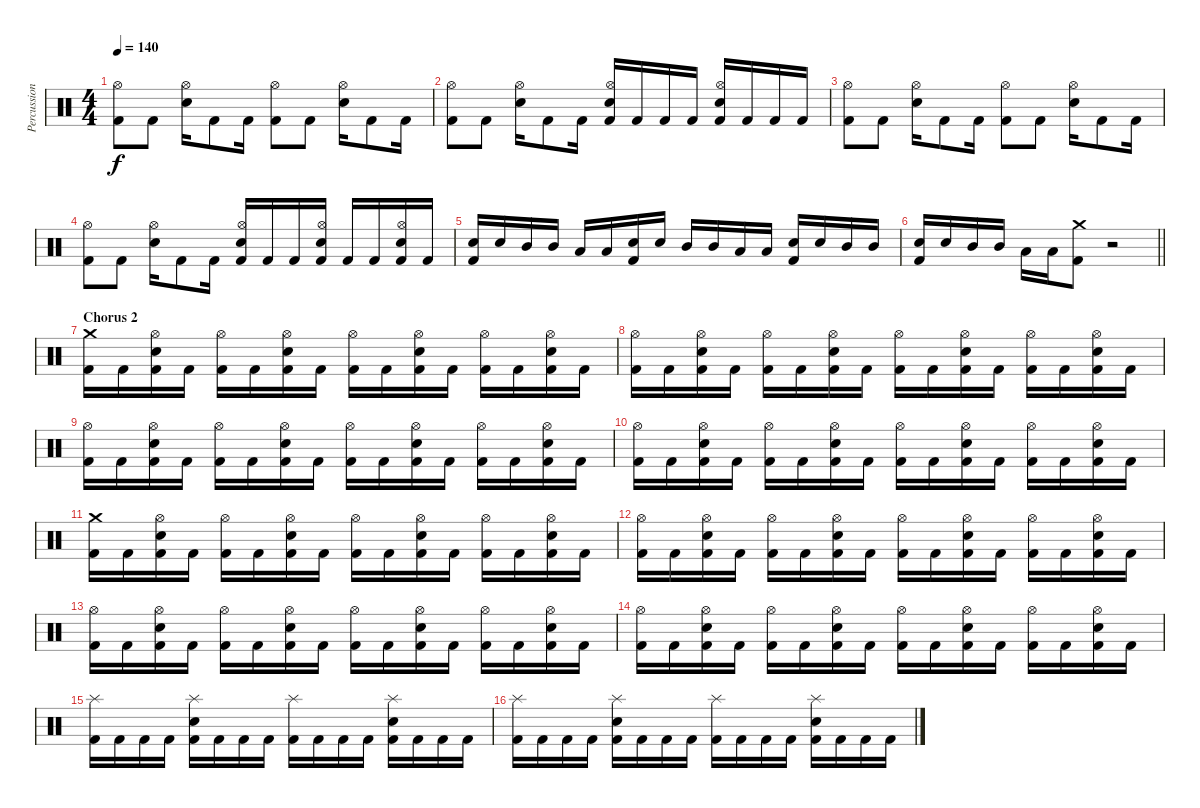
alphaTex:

\track ("Percussion" "Percussion") {instrument percussion}
\staff {score}
\articulation defaults
\ts (4 4)
\tempo 140
\clef neutral
\ks c
("Kick (hit) 2" "Hi-Hat (open)").8{dy f} "Kick (hit) 2".8 ("Electric Snare (hit)" "Hi-Hat (open)").16 "Kick (hit) 2".8 "Kick (hit) 2".16 ("Kick (hit) 2" "Hi-Hat (open)").8 "Kick (hit) 2".8 ("Electric Snare (hit)" "Hi-Hat (open)").16 "Kick (hit) 2".8 "Kick (hit) 2".16 |
("Kick (hit) 2" "Hi-Hat (open)").8 "Kick (hit) 2".8 ("Electric Snare (hit)" "Hi-Hat (open)").16 "Kick (hit) 2".8 "Kick (hit) 2".16 ("Kick (hit) 2" "Electric Snare (hit)" "Hi-Hat (open)").16 "Kick (hit) 2".16 "Kick (hit) 2".16 "Kick (hit) 2".16 ("Kick (hit) 2" "Electric Snare (hit)" "Hi-Hat (open)").16 "Kick (hit) 2".16 "Kick (hit) 2".16 "Kick (hit) 2".16 |
("Kick (hit) 2" "Hi-Hat (open)").8 "Kick (hit) 2".8 ("Electric Snare (hit)" "Hi-Hat (open)").16 "Kick (hit) 2".8 "Kick (hit) 2".16 ("Kick (hit) 2" "Hi-Hat (open)").8 "Kick (hit) 2".8 ("Electric Snare (hit)" "Hi-Hat (open)").16 "Kick (hit) 2".8 "Kick (hit) 2".16 |
("Kick (hit) 2" "Hi-Hat (open)").8 "Kick (hit) 2".8 ("Electric Snare (hit)" "Hi-Hat (open)").16 "Kick (hit) 2".8 "Kick (hit) 2".16 ("Kick (hit) 2" "Electric Snare (hit)" "Hi-Hat (open)").16 "Kick (hit) 2".16 "Kick (hit) 2".16 ("Kick (hit) 2" "Electric Snare (hit)" "Hi-Hat (open)").16 "Kick (hit) 2".16 "Kick (hit) 2".16 ("Kick (hit) 2" "Electric Snare (hit)" "Hi-Hat (open)").16 "Kick (hit) 2".16 |
("Kick (hit) 2" "Electric Snare (hit)").16 "Electric Snare (hit)".16 "Mid Tom (hit)".16 "Mid Tom (hit)".16 "Low Floor Tom (hit)".16 "Low Floor Tom (hit)".16 ("Kick (hit) 2" "Electric Snare (hit)").16 "Electric Snare (hit)".16 "Mid Tom (hit)".16 "Mid Tom (hit)".16 "Low Floor Tom (hit)".16 "Low Floor Tom (hit)".16 ("Kick (hit) 2" "Electric Snare (hit)").16 "Electric Snare (hit)".16 "Mid Tom (hit)".16 "Mid Tom (hit)".16 |
\barLineRight lightlight
("Kick (hit) 2" "Electric Snare (hit)").16 "Electric Snare (hit)".16 "Mid Tom (hit)".16 "Mid Tom (hit)".16 "Low Floor Tom (hit)".16 "Low Floor Tom (hit)".16 ("Kick (hit) 2" "Crash medium (hit)").8 r.2 |
\section ("" "Chorus 2")
("Kick (hit) 2" "Crash medium (hit)").16 "Kick (hit) 2".16 ("Kick (hit) 2" "Electric Snare (hit)" "Hi-Hat (open)").16 "Kick (hit) 2".16 ("Kick (hit) 2" "Hi-Hat (open)").16 "Kick (hit) 2".16 ("Kick (hit) 2" "Electric Snare (hit)" "Hi-Hat (open)").16 "Kick (hit) 2".16 ("Kick (hit) 2" "Hi-Hat (open)").16 "Kick (hit) 2".16 ("Kick (hit) 2" "Electric Snare (hit)" "Hi-Hat (open)").16 "Kick (hit) 2".16 ("Kick (hit) 2" "Hi-Hat (open)").16 "Kick (hit) 2".16 ("Kick (hit) 2" "Electric Snare (hit)" "Hi-Hat (open)").16 "Kick (hit) 2".16 |
("Kick (hit) 2" "Hi-Hat (open)").16 "Kick (hit) 2".16 ("Kick (hit) 2" "Electric Snare (hit)" "Hi-Hat (open)").16 "Kick (hit) 2".16 ("Kick (hit) 2" "Hi-Hat (open)").16 "Kick (hit) 2".16 ("Kick (hit) 2" "Electric Snare (hit)" "Hi-Hat (open)").16 "Kick (hit) 2".16 ("Kick (hit) 2" "Hi-Hat (open)").16 "Kick (hit) 2".16 ("Kick (hit) 2" "Electric Snare (hit)" "Hi-Hat (open)").16 "Kick (hit) 2".16 ("Kick (hit) 2" "Hi-Hat (open)").16 "Kick (hit) 2".16 ("Kick (hit) 2" "Electric Snare (hit)" "Hi-Hat (open)").16 "Kick (hit) 2".16 |
("Kick (hit) 2" "Hi-Hat (open)").16 "Kick (hit) 2".16 ("Kick (hit) 2" "Electric Snare (hit)" "Hi-Hat (open)").16 "Kick (hit) 2".16 ("Kick (hit) 2" "Hi-Hat (open)").16 "Kick (hit) 2".16 ("Kick (hit) 2" "Electric Snare (hit)" "Hi-Hat (open)").16 "Kick (hit) 2".16 ("Kick (hit) 2" "Hi-Hat (open)").16 "Kick (hit) 2".16 ("Kick (hit) 2" "Electric Snare (hit)" "Hi-Hat (open)").16 "Kick (hit) 2".16 ("Kick (hit) 2" "Hi-Hat (open)").16 "Kick (hit) 2".16 ("Kick (hit) 2" "Electric Snare (hit)" "Hi-Hat (open)").16 "Kick (hit) 2".16 |
("Kick (hit) 2" "Hi-Hat (open)").16 "Kick (hit) 2".16 ("Kick (hit) 2" "Electric Snare (hit)" "Hi-Hat (open)").16 "Kick (hit) 2".16 ("Kick (hit) 2" "Hi-Hat (open)").16 "Kick (hit) 2".16 ("Kick (hit) 2" "Electric Snare (hit)" "Hi-Hat (open)").16 "Kick (hit) 2".16 ("Kick (hit) 2" "Hi-Hat (open)").16 "Kick (hit) 2".16 ("Kick (hit) 2" "Electric Snare (hit)" "Hi-Hat (open)").16 "Kick (hit) 2".16 ("Kick (hit) 2" "Hi-Hat (open)").16 "Kick (hit) 2".16 ("Kick (hit) 2" "Electric Snare (hit)" "Hi-Hat (open)").16 "Kick (hit) 2".16 |
("Kick (hit) 2" "Crash medium (hit)").16 "Kick (hit) 2".16 ("Kick (hit) 2" "Electric Snare (hit)" "Hi-Hat (open)").16 "Kick (hit) 2".16 ("Kick (hit) 2" "Hi-Hat (open)").16 "Kick (hit) 2".16 ("Kick (hit) 2" "Electric Snare (hit)" "Hi-Hat (open)").16 "Kick (hit) 2".16 ("Kick (hit) 2" "Hi-Hat (open)").16 "Kick (hit) 2".16 ("Kick (hit) 2" "Electric Snare (hit)" "Hi-Hat (open)").16 "Kick (hit) 2".16 ("Kick (hit) 2" "Hi-Hat (open)").16 "Kick (hit) 2".16 ("Kick (hit) 2" "Electric Snare (hit)" "Hi-Hat (open)").16 "Kick (hit) 2".16 |
("Kick (hit) 2" "Hi-Hat (open)").16 "Kick (hit) 2".16 ("Kick (hit) 2" "Electric Snare (hit)" "Hi-Hat (open)").16 "Kick (hit) 2".16 ("Kick (hit) 2" "Hi-Hat (open)").16 "Kick (hit) 2".16 ("Kick (hit) 2" "Electric Snare (hit)" "Hi-Hat (open)").16 "Kick (hit) 2".16 ("Kick (hit) 2" "Hi-Hat (open)").16 "Kick (hit) 2".16 ("Kick (hit) 2" "Electric Snare (hit)" "Hi-Hat (open)").16 "Kick (hit) 2".16 ("Kick (hit) 2" "Hi-Hat (open)").16 "Kick (hit) 2".16 ("Kick (hit) 2" "Electric Snare (hit)" "Hi-Hat (open)").16 "Kick (hit) 2".16 |
("Kick (hit) 2" "Hi-Hat (open)").16 "Kick (hit) 2".16 ("Kick (hit) 2" "Electric Snare (hit)" "Hi-Hat (open)").16 "Kick (hit) 2".16 ("Kick (hit) 2" "Hi-Hat (open)").16 "Kick (hit) 2".16 ("Kick (hit) 2" "Electric Snare (hit)" "Hi-Hat (open)").16 "Kick (hit) 2".16 ("Kick (hit) 2" "Hi-Hat (open)").16 "Kick (hit) 2".16 ("Kick (hit) 2" "Electric Snare (hit)" "Hi-Hat (open)").16 "Kick (hit) 2".16 ("Kick (hit) 2" "Hi-Hat (open)").16 "Kick (hit) 2".16 ("Kick (hit) 2" "Electric Snare (hit)" "Hi-Hat (open)").16 "Kick (hit) 2".16 |
("Kick (hit) 2" "Hi-Hat (open)").16 "Kick (hit) 2".16 ("Kick (hit) 2" "Electric Snare (hit)" "Hi-Hat (open)").16 "Kick (hit) 2".16 ("Kick (hit) 2" "Hi-Hat (open)").16 "Kick (hit) 2".16 ("Kick (hit) 2" "Electric Snare (hit)" "Hi-Hat (open)").16 "Kick (hit) 2".16 ("Kick (hit) 2" "Hi-Hat (open)").16 "Kick (hit) 2".16 ("Kick (hit) 2" "Electric Snare (hit)" "Hi-Hat (open)").16 "Kick (hit) 2".16 ("Kick (hit) 2" "Hi-Hat (open)").16 "Kick (hit) 2".16 ("Kick (hit) 2" "Electric Snare (hit)" "Hi-Hat (open)").16 "Kick (hit) 2".16 |
("Kick (hit) 2" "Splash (hit)").16 "Kick (hit) 2".16 "Kick (hit) 2".16 "Kick (hit) 2".16 ("Kick (hit) 2" "Electric Snare (hit)" "Splash (hit)").16 "Kick (hit) 2".16 "Kick (hit) 2".16 "Kick (hit) 2".16 ("Kick (hit) 2" "Splash (hit)").16 "Kick (hit) 2".16 "Kick (hit) 2".16 "Kick (hit) 2".16 ("Kick (hit) 2" "Electric Snare (hit)" "Splash (hit)").16 "Kick (hit) 2".16 "Kick (hit) 2".16 "Kick (hit) 2".16 |
("Kick (hit) 2" "Splash (hit)").16 "Kick (hit) 2".16 "Kick (hit) 2".16 "Kick (hit) 2".16 ("Kick (hit) 2" "Electric Snare (hit)" "Splash (hit)").16 "Kick (hit) 2".16 "Kick (hit) 2".16 "Kick (hit) 2".16 ("Kick (hit) 2" "Splash (hit)").16 "Kick (hit) 2".16 "Kick (hit) 2".16 "Kick (hit) 2".16 ("Kick (hit) 2" "Electric Snare (hit)" "Splash (hit)").16 "Kick (hit) 2".16 "Kick (hit) 2".16 "Kick (hit) 2".16
